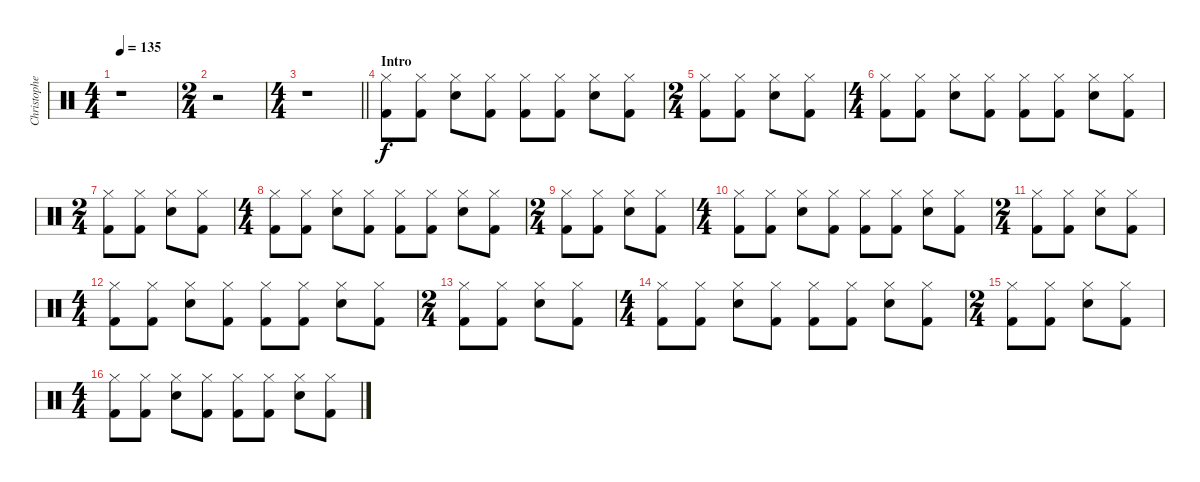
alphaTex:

\track ("Christopher - Drums" "Christophe") {instrument percussion}
\staff {score}
\articulation defaults
\ts (4 4)
\tempo 135
\clef neutral
\ks c
r.1{dy f} |
\ts (2 4)
r.2 |
\ts (4 4)
\barLineRight lightlight
r.1 |
\section ("" "Intro")
("Hi-Hat (closed)" "Kick (hit) 2").8 ("Hi-Hat (closed)" "Kick (hit) 2").8 ("Hi-Hat (closed)" "Snare (hit) 2").8 ("Hi-Hat (closed)" "Kick (hit) 2").8 ("Hi-Hat (closed)" "Kick (hit) 2").8 ("Hi-Hat (closed)" "Kick (hit) 2").8 ("Hi-Hat (closed)" "Snare (hit) 2").8 ("Hi-Hat (closed)" "Kick (hit) 2").8 |
\ts (2 4)
("Hi-Hat (closed)" "Kick (hit) 2").8 ("Hi-Hat (closed)" "Kick (hit) 2").8 ("Hi-Hat (closed)" "Snare (hit) 2").8 ("Hi-Hat (closed)" "Kick (hit) 2").8 |
\ts (4 4)
("Hi-Hat (closed)" "Kick (hit) 2").8 ("Hi-Hat (closed)" "Kick (hit) 2").8 ("Hi-Hat (closed)" "Snare (hit) 2").8 ("Hi-Hat (closed)" "Kick (hit) 2").8 ("Hi-Hat (closed)" "Kick (hit) 2").8 ("Hi-Hat (closed)" "Kick (hit) 2").8 ("Hi-Hat (closed)" "Snare (hit) 2").8 ("Hi-Hat (closed)" "Kick (hit) 2").8 |
\ts (2 4)
("Hi-Hat (closed)" "Kick (hit) 2").8 ("Hi-Hat (closed)" "Kick (hit) 2").8 ("Hi-Hat (closed)" "Snare (hit) 2").8 ("Hi-Hat (closed)" "Kick (hit) 2").8 |
\ts (4 4)
("Hi-Hat (closed)" "Kick (hit) 2").8 ("Hi-Hat (closed)" "Kick (hit) 2").8 ("Hi-Hat (closed)" "Snare (hit) 2").8 ("Hi-Hat (closed)" "Kick (hit) 2").8 ("Hi-Hat (closed)" "Kick (hit) 2").8 ("Hi-Hat (closed)" "Kick (hit) 2").8 ("Hi-Hat (closed)" "Snare (hit) 2").8 ("Hi-Hat (closed)" "Kick (hit) 2").8 |
\ts (2 4)
("Hi-Hat (closed)" "Kick (hit) 2").8 ("Hi-Hat (closed)" "Kick (hit) 2").8 ("Hi-Hat (closed)" "Snare (hit) 2").8 ("Hi-Hat (closed)" "Kick (hit) 2").8 |
\ts (4 4)
("Hi-Hat (closed)" "Kick (hit) 2").8 ("Hi-Hat (closed)" "Kick (hit) 2").8 ("Hi-Hat (closed)" "Snare (hit) 2").8 ("Hi-Hat (closed)" "Kick (hit) 2").8 ("Hi-Hat (closed)" "Kick (hit) 2").8 ("Hi-Hat (closed)" "Kick (hit) 2").8 ("Hi-Hat (closed)" "Snare (hit) 2").8 ("Hi-Hat (closed)" "Kick (hit) 2").8 |
\ts (2 4)
("Hi-Hat (closed)" "Kick (hit) 2").8 ("Hi-Hat (closed)" "Kick (hit) 2").8 ("Hi-Hat (closed)" "Snare (hit) 2").8 ("Hi-Hat (closed)" "Kick (hit) 2").8 |
\ts (4 4)
("Hi-Hat (closed)" "Kick (hit) 2").8 ("Hi-Hat (closed)" "Kick (hit) 2").8 ("Hi-Hat (closed)" "Snare (hit) 2").8 ("Hi-Hat (closed)" "Kick (hit) 2").8 ("Hi-Hat (closed)" "Kick (hit) 2").8 ("Hi-Hat (closed)" "Kick (hit) 2").8 ("Hi-Hat (closed)" "Snare (hit) 2").8 ("Hi-Hat (closed)" "Kick (hit) 2").8 |
\ts (2 4)
("Hi-Hat (closed)" "Kick (hit) 2").8 ("Hi-Hat (closed)" "Kick (hit) 2").8 ("Hi-Hat (closed)" "Snare (hit) 2").8 ("Hi-Hat (closed)" "Kick (hit) 2").8 |
\ts (4 4)
("Hi-Hat (closed)" "Kick (hit) 2").8 ("Hi-Hat (closed)" "Kick (hit) 2").8 ("Hi-Hat (closed)" "Snare (hit) 2").8 ("Hi-Hat (closed)" "Kick (hit) 2").8 ("Hi-Hat (closed)" "Kick (hit) 2").8 ("Hi-Hat (closed)" "Kick (hit) 2").8 ("Hi-Hat (closed)" "Snare (hit) 2").8 ("Hi-Hat (closed)" "Kick (hit) 2").8 |
\ts (2 4)
("Hi-Hat (closed)" "Kick (hit) 2").8 ("Hi-Hat (closed)" "Kick (hit) 2").8 ("Hi-Hat (closed)" "Snare (hit) 2").8 ("Hi-Hat (closed)" "Kick (hit) 2").8 |
\ts (4 4)
("Hi-Hat (closed)" "Kick (hit) 2").8 ("Hi-Hat (closed)" "Kick (hit) 2").8 ("Hi-Hat (closed)" "Snare (hit) 2").8 ("Hi-Hat (closed)" "Kick (hit) 2").8 ("Hi-Hat (closed)" "Kick (hit) 2").8 ("Hi-Hat (closed)" "Kick (hit) 2").8 ("Hi-Hat (closed)" "Snare (hit) 2").8 ("Hi-Hat (closed)" "Kick (hit) 2").8
